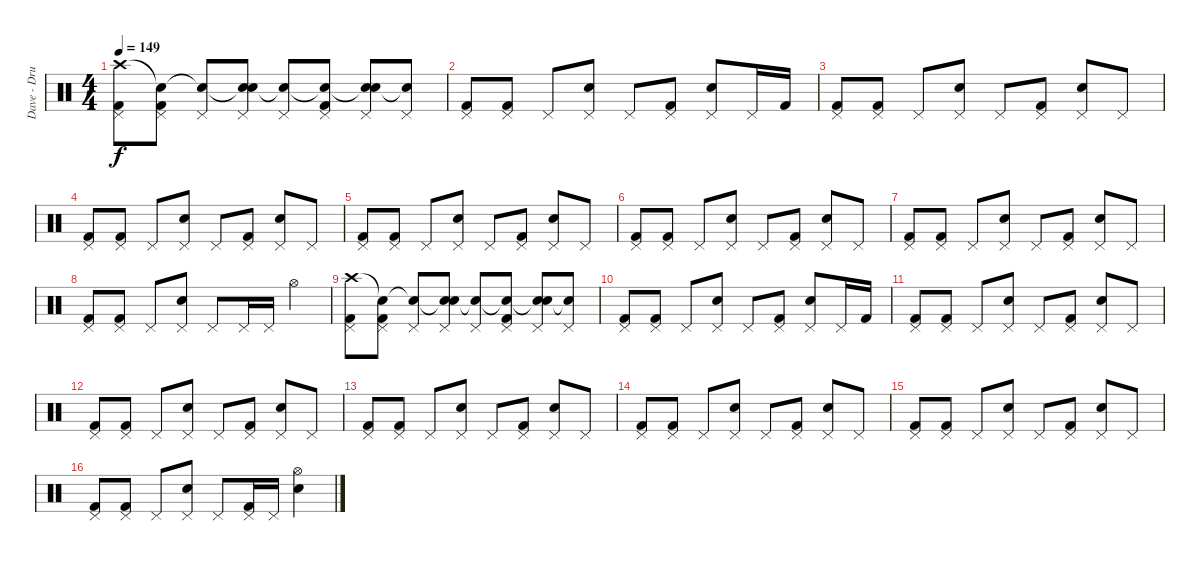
\track ("Dave - Drums" "Dave - Dru") {instrument percussion}
\staff {score}
\articulation defaults
\ts (4 4)
\tempo 149
\clef neutral
\ks c
("Crash high (hit)" "Pedal Hi-Hat (hit)" "Kick (hit) 2").8{dy f} ("Snare (hit)"{t} "Pedal Hi-Hat (hit)" "Kick (hit) 2").8 ("Snare (hit)"{t} "Pedal Hi-Hat (hit)").8 ("Snare (hit)"{t} "Pedal Hi-Hat (hit)" "Electric Snare (hit)").8 ("Snare (hit)"{t} "Pedal Hi-Hat (hit)").8 ("Snare (hit)"{t} "Pedal Hi-Hat (hit)" "Kick (hit) 2").8 ("Snare (hit)"{t} "Pedal Hi-Hat (hit)" "Electric Snare (hit)").8 ("Snare (hit)"{t} "Pedal Hi-Hat (hit)").8 |
("Pedal Hi-Hat (hit)" "Kick (hit) 2").8 ("Pedal Hi-Hat (hit)" "Kick (hit) 2").8 "Pedal Hi-Hat (hit)".8 ("Pedal Hi-Hat (hit)" "Electric Snare (hit)").8 "Pedal Hi-Hat (hit)".8 ("Pedal Hi-Hat (hit)" "Kick (hit) 2").8 ("Pedal Hi-Hat (hit)" "Electric Snare (hit)").8 "Pedal Hi-Hat (hit)".16 "Kick (hit) 2".16 |
("Pedal Hi-Hat (hit)" "Kick (hit) 2").8 ("Pedal Hi-Hat (hit)" "Kick (hit) 2").8 "Pedal Hi-Hat (hit)".8 ("Pedal Hi-Hat (hit)" "Electric Snare (hit)").8 "Pedal Hi-Hat (hit)".8 ("Pedal Hi-Hat (hit)" "Kick (hit) 2").8 ("Pedal Hi-Hat (hit)" "Electric Snare (hit)").8 "Pedal Hi-Hat (hit)".8 |
("Pedal Hi-Hat (hit)" "Kick (hit) 2").8 ("Pedal Hi-Hat (hit)" "Kick (hit) 2").8 "Pedal Hi-Hat (hit)".8 ("Pedal Hi-Hat (hit)" "Electric Snare (hit)").8 "Pedal Hi-Hat (hit)".8 ("Pedal Hi-Hat (hit)" "Kick (hit) 2").8 ("Pedal Hi-Hat (hit)" "Electric Snare (hit)").8 "Pedal Hi-Hat (hit)".8 |
("Pedal Hi-Hat (hit)" "Kick (hit) 2").8 ("Pedal Hi-Hat (hit)" "Kick (hit) 2").8 "Pedal Hi-Hat (hit)".8 ("Pedal Hi-Hat (hit)" "Electric Snare (hit)").8 "Pedal Hi-Hat (hit)".8 ("Pedal Hi-Hat (hit)" "Kick (hit) 2").8 ("Pedal Hi-Hat (hit)" "Electric Snare (hit)").8 "Pedal Hi-Hat (hit)".8 |
("Pedal Hi-Hat (hit)" "Kick (hit) 2").8 ("Pedal Hi-Hat (hit)" "Kick (hit) 2").8 "Pedal Hi-Hat (hit)".8 ("Pedal Hi-Hat (hit)" "Electric Snare (hit)").8 "Pedal Hi-Hat (hit)".8 ("Pedal Hi-Hat (hit)" "Kick (hit) 2").8 ("Pedal Hi-Hat (hit)" "Electric Snare (hit)").8 "Pedal Hi-Hat (hit)".8 |
("Pedal Hi-Hat (hit)" "Kick (hit) 2").8 ("Pedal Hi-Hat (hit)" "Kick (hit) 2").8 "Pedal Hi-Hat (hit)".8 ("Pedal Hi-Hat (hit)" "Electric Snare (hit)").8 "Pedal Hi-Hat (hit)".8 ("Pedal Hi-Hat (hit)" "Kick (hit) 2").8 ("Pedal Hi-Hat (hit)" "Electric Snare (hit)").8 "Pedal Hi-Hat (hit)".8 |
("Pedal Hi-Hat (hit)" "Kick (hit) 2").8 ("Pedal Hi-Hat (hit)" "Kick (hit) 2").8 "Pedal Hi-Hat (hit)".8 ("Pedal Hi-Hat (hit)" "Electric Snare (hit)").8 "Pedal Hi-Hat (hit)".8 "Pedal Hi-Hat (hit)".16 "Pedal Hi-Hat (hit)".16 "Hi-Hat (open)".4 |
("Crash high (hit)" "Pedal Hi-Hat (hit)" "Kick (hit) 2").8 ("Snare (hit)"{t} "Pedal Hi-Hat (hit)" "Kick (hit) 2").8 ("Snare (hit)"{t} "Pedal Hi-Hat (hit)").8 ("Snare (hit)"{t} "Pedal Hi-Hat (hit)" "Electric Snare (hit)").8 ("Snare (hit)"{t} "Pedal Hi-Hat (hit)").8 ("Snare (hit)"{t} "Pedal Hi-Hat (hit)" "Kick (hit) 2").8 ("Snare (hit)"{t} "Pedal Hi-Hat (hit)" "Electric Snare (hit)").8 ("Snare (hit)"{t} "Pedal Hi-Hat (hit)").8 |
("Pedal Hi-Hat (hit)" "Kick (hit) 2").8 ("Pedal Hi-Hat (hit)" "Kick (hit) 2").8 "Pedal Hi-Hat (hit)".8 ("Pedal Hi-Hat (hit)" "Electric Snare (hit)").8 "Pedal Hi-Hat (hit)".8 ("Pedal Hi-Hat (hit)" "Kick (hit) 2").8 ("Pedal Hi-Hat (hit)" "Electric Snare (hit)").8 "Pedal Hi-Hat (hit)".16 "Kick (hit) 2".16 |
("Pedal Hi-Hat (hit)" "Kick (hit) 2").8 ("Pedal Hi-Hat (hit)" "Kick (hit) 2").8 "Pedal Hi-Hat (hit)".8 ("Pedal Hi-Hat (hit)" "Electric Snare (hit)").8 "Pedal Hi-Hat (hit)".8 ("Pedal Hi-Hat (hit)" "Kick (hit) 2").8 ("Pedal Hi-Hat (hit)" "Electric Snare (hit)").8 "Pedal Hi-Hat (hit)".8 |
("Pedal Hi-Hat (hit)" "Kick (hit) 2").8 ("Pedal Hi-Hat (hit)" "Kick (hit) 2").8 "Pedal Hi-Hat (hit)".8 ("Pedal Hi-Hat (hit)" "Electric Snare (hit)").8 "Pedal Hi-Hat (hit)".8 ("Pedal Hi-Hat (hit)" "Kick (hit) 2").8 ("Pedal Hi-Hat (hit)" "Electric Snare (hit)").8 "Pedal Hi-Hat (hit)".8 |
("Pedal Hi-Hat (hit)" "Kick (hit) 2").8 ("Pedal Hi-Hat (hit)" "Kick (hit) 2").8 "Pedal Hi-Hat (hit)".8 ("Pedal Hi-Hat (hit)" "Electric Snare (hit)").8 "Pedal Hi-Hat (hit)".8 ("Pedal Hi-Hat (hit)" "Kick (hit) 2").8 ("Pedal Hi-Hat (hit)" "Electric Snare (hit)").8 "Pedal Hi-Hat (hit)".8 |
("Pedal Hi-Hat (hit)" "Kick (hit) 2").8 ("Pedal Hi-Hat (hit)" "Kick (hit) 2").8 "Pedal Hi-Hat (hit)".8 ("Pedal Hi-Hat (hit)" "Electric Snare (hit)").8 "Pedal Hi-Hat (hit)".8 ("Pedal Hi-Hat (hit)" "Kick (hit) 2").8 ("Pedal Hi-Hat (hit)" "Electric Snare (hit)").8 "Pedal Hi-Hat (hit)".8 |
("Pedal Hi-Hat (hit)" "Kick (hit) 2").8 ("Pedal Hi-Hat (hit)" "Kick (hit) 2").8 "Pedal Hi-Hat (hit)".8 ("Pedal Hi-Hat (hit)" "Electric Snare (hit)").8 "Pedal Hi-Hat (hit)".8 ("Pedal Hi-Hat (hit)" "Kick (hit) 2").8 ("Pedal Hi-Hat (hit)" "Electric Snare (hit)").8 "Pedal Hi-Hat (hit)".8 |
("Pedal Hi-Hat (hit)" "Kick (hit) 2").8 ("Pedal Hi-Hat (hit)" "Kick (hit) 2").8 "Pedal Hi-Hat (hit)".8 ("Pedal Hi-Hat (hit)" "Electric Snare (hit)").8 "Pedal Hi-Hat (hit)".8 ("Pedal Hi-Hat (hit)" "Kick (hit) 2").16 "Pedal Hi-Hat (hit)".16 ("Hi-Hat (open)" "Electric Snare (hit)").4
